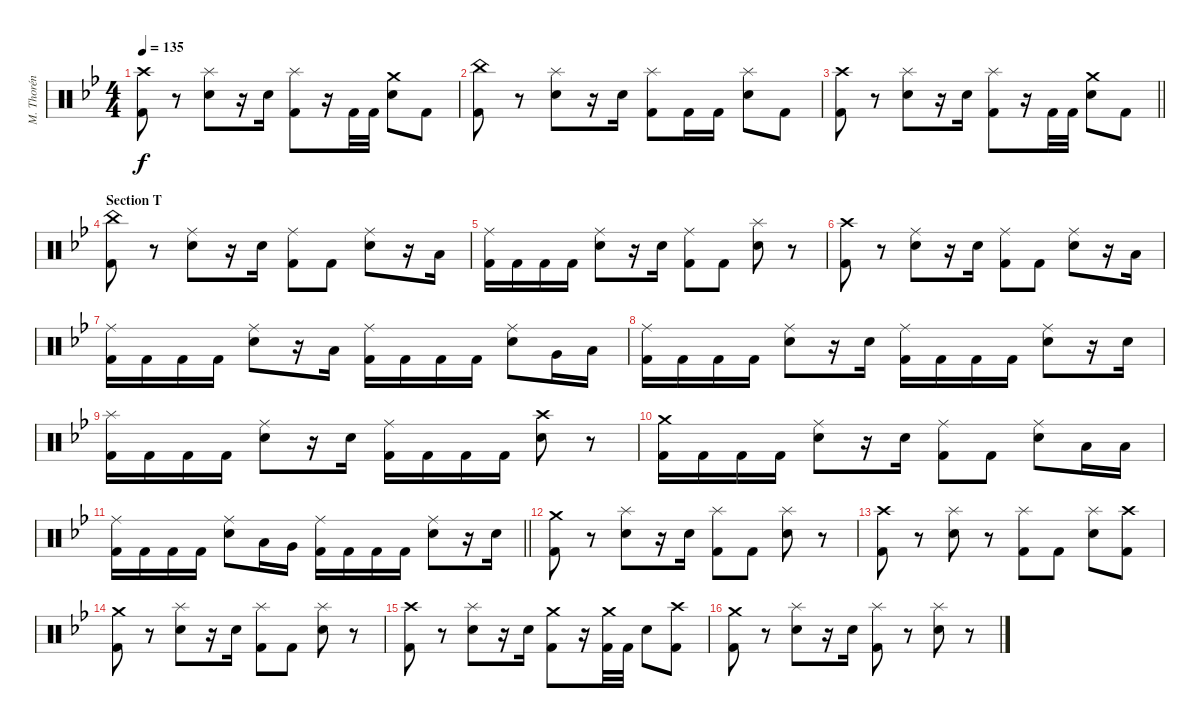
\track ("M. Thorén (Drums)" "M. Thorén ") {instrument percussion}
\staff {score}
\articulation defaults
\ts (4 4)
\tempo 135
\clef neutral
\ks gminor
("Crash high (hit)" "Kick (hit) 2").8{dy f} r.8 ("Splash (hit)" "Electric Snare (hit)").8 r.16 "Electric Snare (hit)".16 ("Splash (hit)" "Kick (hit) 2").8 r.16 "Kick (hit) 2".32 "Kick (hit) 2".32 ("Crash medium (hit)" "Electric Snare (hit)").8 "Kick (hit) 2".8 |
("China (hit)" "Kick (hit) 2").8 r.8 ("Splash (hit)" "Electric Snare (hit)").8 r.16 "Electric Snare (hit)".16 ("Splash (hit)" "Kick (hit) 2").8 "Kick (hit) 2".16 "Kick (hit) 2".16 ("Splash (hit)" "Electric Snare (hit)").8 "Kick (hit) 2".8 |
\barLineRight lightlight
("Crash high (hit)" "Kick (hit) 2").8 r.8 ("Splash (hit)" "Electric Snare (hit)").8 r.16 "Electric Snare (hit)".16 ("Splash (hit)" "Kick (hit) 2").8 r.16 "Kick (hit) 2".32 "Kick (hit) 2".32 ("Crash medium (hit)" "Electric Snare (hit)").8 "Kick (hit) 2".8 |
\section ("" "Section T")
("China (hit)" "Kick (hit) 2").8 r.8 ("Ride (middle)" "Electric Snare (hit)").8 r.16 "Electric Snare (hit)".16 ("Ride (middle)" "Kick (hit) 2").8 "Kick (hit) 2".8 ("Ride (middle)" "Electric Snare (hit)").8 r.16 "Low Tom (hit)".16 |
("Ride (middle)" "Kick (hit) 2").16 "Kick (hit) 2".16 "Kick (hit) 2".16 "Kick (hit) 2".16 ("Ride (middle)" "Electric Snare (hit)").8 r.16 "Electric Snare (hit)".16 ("Ride (middle)" "Kick (hit) 2").8 "Kick (hit) 2".8 ("Splash (hit)" "Electric Snare (hit)").8 r.8 |
("Crash high (hit)" "Kick (hit) 2").8 r.8 ("Ride (middle)" "Electric Snare (hit)").8 r.16 "Electric Snare (hit)".16 ("Ride (middle)" "Kick (hit) 2").8 "Kick (hit) 2".8 ("Ride (middle)" "Electric Snare (hit)").8 r.16 "Low Tom (hit)".16 |
("Ride (middle)" "Kick (hit) 2").16 "Kick (hit) 2".16 "Kick (hit) 2".16 "Kick (hit) 2".16 ("Ride (middle)" "Electric Snare (hit)").8 r.16 "Low Tom (hit)".16 ("Ride (middle)" "Kick (hit) 2").16 "Kick (hit) 2".16 "Kick (hit) 2".16 "Kick (hit) 2".16 ("Ride (middle)" "Electric Snare (hit)").8 "Very Low Tom (hit)".16 "Low Tom (hit)".16 |
("Ride (middle)" "Kick (hit) 2").16 "Kick (hit) 2".16 "Kick (hit) 2".16 "Kick (hit) 2".16 ("Ride (middle)" "Electric Snare (hit)").8 r.16 "Electric Snare (hit)".16 ("Ride (middle)" "Kick (hit) 2").16 "Kick (hit) 2".16 "Kick (hit) 2".16 "Kick (hit) 2".16 ("Ride (middle)" "Electric Snare (hit)").8 r.16 "Electric Snare (hit)".16 |
("Splash (hit)" "Kick (hit) 2").16 "Kick (hit) 2".16 "Kick (hit) 2".16 "Kick (hit) 2".16 ("Ride (middle)" "Electric Snare (hit)").8 r.16 "Electric Snare (hit)".16 ("Ride (middle)" "Kick (hit) 2").16 "Kick (hit) 2".16 "Kick (hit) 2".16 "Kick (hit) 2".16 ("Crash high (hit)" "Electric Snare (hit)").8 r.8 |
("Crash medium (hit)" "Kick (hit) 2").16 "Kick (hit) 2".16 "Kick (hit) 2".16 "Kick (hit) 2".16 ("Ride (middle)" "Electric Snare (hit)").8 r.16 "Electric Snare (hit)".16 ("Ride (middle)" "Kick (hit) 2").8 "Kick (hit) 2".8 ("Ride (middle)" "Electric Snare (hit)").8 "Low Tom (hit)".16 "Low Tom (hit)".16 |
\barLineRight lightlight
("Ride (middle)" "Kick (hit) 2").16 "Kick (hit) 2".16 "Kick (hit) 2".16 "Kick (hit) 2".16 ("Ride (middle)" "Electric Snare (hit)").8 "Low Floor Tom (hit)".16 "Very Low Tom (hit)".16 ("Ride (middle)" "Kick (hit) 2").16 "Kick (hit) 2".16 "Kick (hit) 2".16 "Kick (hit) 2".16 ("Ride (middle)" "Electric Snare (hit)").8 r.16 "Electric Snare (hit)".16 |
("Crash medium (hit)" "Kick (hit) 2").8 r.8 ("Splash (hit)" "Electric Snare (hit)").8 r.16 "Electric Snare (hit)".16 ("Splash (hit)" "Kick (hit) 2").8 "Kick (hit) 2".8 ("Splash (hit)" "Electric Snare (hit)").8 r.8 |
("Crash high (hit)" "Kick (hit) 2").8 r.8 ("Splash (hit)" "Electric Snare (hit)").8 r.8 ("Splash (hit)" "Kick (hit) 2").8 "Kick (hit) 2".8 ("Splash (hit)" "Electric Snare (hit)").8 ("Crash high (hit)" "Kick (hit) 2").8 |
("Crash medium (hit)" "Kick (hit) 2").8 r.8 ("Splash (hit)" "Electric Snare (hit)").8 r.16 "Electric Snare (hit)".16 ("Splash (hit)" "Kick (hit) 2").8 "Kick (hit) 2".8 ("Splash (hit)" "Electric Snare (hit)").8 r.8 |
("Crash high (hit)" "Kick (hit) 2").8 r.8 ("Splash (hit)" "Electric Snare (hit)").8 r.16 "Electric Snare (hit)".16 ("Crash medium (hit)" "Kick (hit) 2").8 r.16 ("Crash medium (hit)" "Kick (hit) 2").32 "Kick (hit) 2".32 "Electric Snare (hit)".8 ("Crash high (hit)" "Kick (hit) 2").8 |
("Crash medium (hit)" "Kick (hit) 2").8 r.8 ("Splash (hit)" "Electric Snare (hit)").8 r.16 "Electric Snare (hit)".16 ("Splash (hit)" "Kick (hit) 2").8 r.8 ("Splash (hit)" "Electric Snare (hit)").8 r.8
